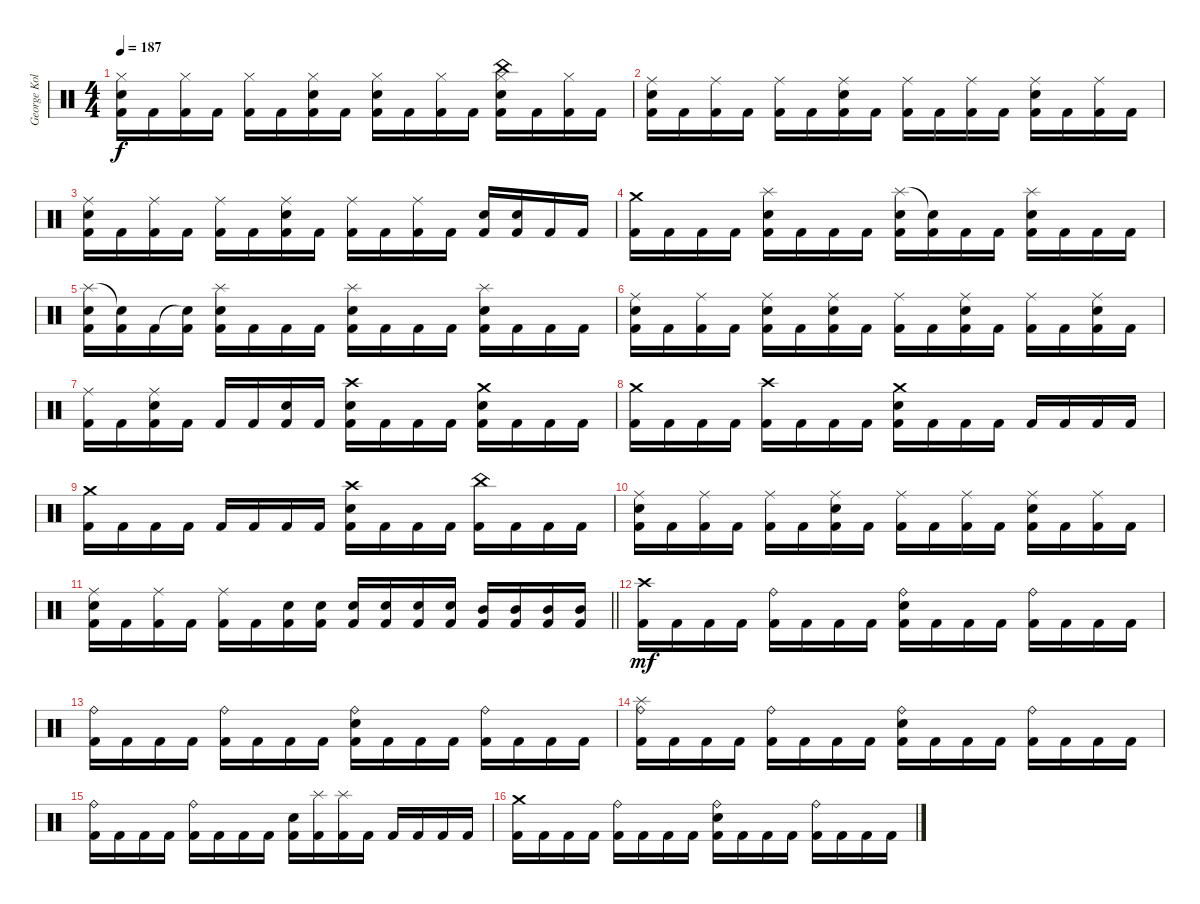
\track ("George Kollias" "George Kol") {instrument percussion}
\staff {score}
\articulation defaults
\ts (4 4)
\tempo 187
\clef neutral
\ks c
("Hi-Hat (closed)" "Electric Snare (hit)" "Kick (hit) 2").16{dy f} "Kick (hit) 2".16 ("Hi-Hat (closed)" "Kick (hit) 2").16 "Kick (hit) 2".16 ("Hi-Hat (closed)" "Kick (hit) 2").16 "Kick (hit) 2".16 ("Hi-Hat (closed)" "Electric Snare (hit)" "Kick (hit) 2").16 "Kick (hit) 2".16 ("Hi-Hat (closed)" "Electric Snare (hit)" "Kick (hit) 2").16 "Kick (hit) 2".16 ("Hi-Hat (closed)" "Kick (hit) 2").16 "Kick (hit) 2".16 ("China (hit)" "Hi-Hat (closed)" "Electric Snare (hit)" "Kick (hit) 2").16 "Kick (hit) 2".16 ("Hi-Hat (closed)" "Kick (hit) 2").16 "Kick (hit) 2".16 |
("Ride (middle)" "Electric Snare (hit)" "Kick (hit) 2").16 "Kick (hit) 2".16 ("Ride (middle)" "Kick (hit) 2").16 "Kick (hit) 2".16 ("Ride (middle)" "Kick (hit) 2").16 "Kick (hit) 2".16 ("Ride (middle)" "Electric Snare (hit)" "Kick (hit) 2").16 "Kick (hit) 2".16 ("Ride (middle)" "Kick (hit) 2").16 "Kick (hit) 2".16 ("Ride (middle)" "Kick (hit) 2").16 "Kick (hit) 2".16 ("Ride (middle)" "Electric Snare (hit)" "Kick (hit) 2").16 "Kick (hit) 2".16 ("Ride (middle)" "Kick (hit) 2").16 "Kick (hit) 2".16 |
("Ride (middle)" "Electric Snare (hit)" "Kick (hit) 2").16 "Kick (hit) 2".16 ("Ride (middle)" "Kick (hit) 2").16 "Kick (hit) 2".16 ("Ride (middle)" "Kick (hit) 2").16 "Kick (hit) 2".16 ("Ride (middle)" "Electric Snare (hit)" "Kick (hit) 2").16 "Kick (hit) 2".16 ("Ride (middle)" "Kick (hit) 2").16 "Kick (hit) 2".16 ("Ride (middle)" "Kick (hit) 2").16 "Kick (hit) 2".16 ("Electric Snare (hit)" "Kick (hit) 2").16 ("Electric Snare (hit)" "Kick (hit) 2").16 "Kick (hit) 2".16 "Kick (hit) 2".16 |
("Crash medium (hit)" "Kick (hit) 2").16 "Kick (hit) 2".16 "Kick (hit) 2".16 "Kick (hit) 2".16 ("Splash (hit)" "Electric Snare (hit)" "Kick (hit) 2").16 "Kick (hit) 2".16 "Kick (hit) 2".16 "Kick (hit) 2".16 ("Splash (hit)" "Electric Snare (hit)" "Kick (hit) 2").16 ("Snare (hit)"{t} "Kick (hit) 2").16 "Kick (hit) 2".16 "Kick (hit) 2".16 ("Splash (hit)" "Electric Snare (hit)" "Kick (hit) 2").16 "Kick (hit) 2".16 "Kick (hit) 2".16 "Kick (hit) 2".16 |
("Splash (hit)" "Electric Snare (hit)" "Kick (hit) 2").16 ("Snare (hit)"{t} "Kick (hit) 2").16 "Kick (hit) 2".16 ("Snare (hit)"{t} "Kick (hit) 2").16 ("Splash (hit)" "Electric Snare (hit)" "Kick (hit) 2").16 "Kick (hit) 2".16 "Kick (hit) 2".16 "Kick (hit) 2".16 ("Splash (hit)" "Electric Snare (hit)" "Kick (hit) 2").16 "Kick (hit) 2".16 "Kick (hit) 2".16 "Kick (hit) 2".16 ("Splash (hit)" "Electric Snare (hit)" "Kick (hit) 2").16 "Kick (hit) 2".16 "Kick (hit) 2".16 "Kick (hit) 2".16 |
("Ride (middle)" "Electric Snare (hit)" "Kick (hit) 2").16 "Kick (hit) 2".16 ("Ride (middle)" "Kick (hit) 2").16 "Kick (hit) 2".16 ("Ride (middle)" "Electric Snare (hit)" "Kick (hit) 2").16 "Kick (hit) 2".16 ("Ride (middle)" "Electric Snare (hit)" "Kick (hit) 2").16 "Kick (hit) 2".16 ("Ride (middle)" "Kick (hit) 2").16 "Kick (hit) 2".16 ("Ride (middle)" "Electric Snare (hit)" "Kick (hit) 2").16 "Kick (hit) 2".16 ("Ride (middle)" "Kick (hit) 2").16 "Kick (hit) 2".16 ("Ride (middle)" "Electric Snare (hit)" "Kick (hit) 2").16 "Kick (hit) 2".16 |
("Ride (middle)" "Kick (hit) 2").16 "Kick (hit) 2".16 ("Ride (middle)" "Electric Snare (hit)" "Kick (hit) 2").16 "Kick (hit) 2".16 "Kick (hit) 2".16 "Kick (hit) 2".16 ("Electric Snare (hit)" "Kick (hit) 2").16 "Kick (hit) 2".16 ("Crash high (hit)" "Electric Snare (hit)" "Kick (hit) 2").16 "Kick (hit) 2".16 "Kick (hit) 2".16 "Kick (hit) 2".16 ("Crash medium (hit)" "Electric Snare (hit)" "Kick (hit) 2").16 "Kick (hit) 2".16 "Kick (hit) 2".16 "Kick (hit) 2".16 |
("Crash medium (hit)" "Kick (hit) 2").16 "Kick (hit) 2".16 "Kick (hit) 2".16 "Kick (hit) 2".16 ("Crash high (hit)" "Kick (hit) 2").16 "Kick (hit) 2".16 "Kick (hit) 2".16 "Kick (hit) 2".16 ("Crash medium (hit)" "Electric Snare (hit)" "Kick (hit) 2").16 "Kick (hit) 2".16 "Kick (hit) 2".16 "Kick (hit) 2".16 "Kick (hit) 2".16 "Kick (hit) 2".16 "Kick (hit) 2".16 "Kick (hit) 2".16 |
("Crash medium (hit)" "Kick (hit) 2").16 "Kick (hit) 2".16 "Kick (hit) 2".16 "Kick (hit) 2".16 "Kick (hit) 2".16 "Kick (hit) 2".16 "Kick (hit) 2".16 "Kick (hit) 2".16 ("Crash high (hit)" "Electric Snare (hit)" "Kick (hit) 2").16 "Kick (hit) 2".16 "Kick (hit) 2".16 "Kick (hit) 2".16 ("China (hit)" "Kick (hit) 2").16 "Kick (hit) 2".16 "Kick (hit) 2".16 "Kick (hit) 2".16 |
("Ride (middle)" "Electric Snare (hit)" "Kick (hit) 2").16 "Kick (hit) 2".16 ("Ride (middle)" "Kick (hit) 2").16 "Kick (hit) 2".16 ("Ride (middle)" "Kick (hit) 2").16 "Kick (hit) 2".16 ("Ride (middle)" "Electric Snare (hit)" "Kick (hit) 2").16 "Kick (hit) 2".16 ("Ride (middle)" "Kick (hit) 2").16 "Kick (hit) 2".16 ("Ride (middle)" "Kick (hit) 2").16 "Kick (hit) 2".16 ("Ride (middle)" "Electric Snare (hit)" "Kick (hit) 2").16 "Kick (hit) 2".16 ("Ride (middle)" "Kick (hit) 2").16 "Kick (hit) 2".16 |
\barLineRight lightlight
("Ride (middle)" "Electric Snare (hit)" "Kick (hit) 2").16 "Kick (hit) 2".16 ("Ride (middle)" "Kick (hit) 2").16 "Kick (hit) 2".16 ("Ride (middle)" "Kick (hit) 2").16 "Kick (hit) 2".16 ("Electric Snare (hit)" "Kick (hit) 2").16 ("Electric Snare (hit)" "Kick (hit) 2").16 ("Electric Snare (hit)" "Kick (hit) 2").16 ("Electric Snare (hit)" "Kick (hit) 2").16 ("Electric Snare (hit)" "Kick (hit) 2").16 ("Electric Snare (hit)" "Kick (hit) 2").16 ("Mid Tom (hit)" "Kick (hit) 2").16 ("Mid Tom (hit)" "Kick (hit) 2").16 ("Mid Tom (hit)" "Kick (hit) 2").16 ("Mid Tom (hit)" "Kick (hit) 2").16 |
\section ("" "")
("Crash high (hit)" "Kick (hit) 2").16{dy mf} "Kick (hit) 2".16 "Kick (hit) 2".16 "Kick (hit) 2".16 ("Ride (bell)" "Kick (hit) 2").16 "Kick (hit) 2".16 "Kick (hit) 2".16 "Kick (hit) 2".16 ("Ride (bell)" "Electric Snare (hit)" "Kick (hit) 2").16 "Kick (hit) 2".16 "Kick (hit) 2".16 "Kick (hit) 2".16 ("Ride (bell)" "Kick (hit) 2").16 "Kick (hit) 2".16 "Kick (hit) 2".16 "Kick (hit) 2".16 |
("Ride (bell)" "Kick (hit) 2").16 "Kick (hit) 2".16 "Kick (hit) 2".16 "Kick (hit) 2".16 ("Ride (bell)" "Kick (hit) 2").16 "Kick (hit) 2".16 "Kick (hit) 2".16 "Kick (hit) 2".16 ("Ride (bell)" "Electric Snare (hit)" "Kick (hit) 2").16 "Kick (hit) 2".16 "Kick (hit) 2".16 "Kick (hit) 2".16 ("Ride (bell)" "Kick (hit) 2").16 "Kick (hit) 2".16 "Kick (hit) 2".16 "Kick (hit) 2".16 |
("Splash (hit)" "Ride (bell)" "Kick (hit) 2").16 "Kick (hit) 2".16 "Kick (hit) 2".16 "Kick (hit) 2".16 ("Ride (bell)" "Kick (hit) 2").16 "Kick (hit) 2".16 "Kick (hit) 2".16 "Kick (hit) 2".16 ("Ride (bell)" "Electric Snare (hit)" "Kick (hit) 2").16 "Kick (hit) 2".16 "Kick (hit) 2".16 "Kick (hit) 2".16 ("Ride (bell)" "Kick (hit) 2").16 "Kick (hit) 2".16 "Kick (hit) 2".16 "Kick (hit) 2".16 |
("Ride (bell)" "Kick (hit) 2").16 "Kick (hit) 2".16 "Kick (hit) 2".16 "Kick (hit) 2".16 ("Ride (bell)" "Kick (hit) 2").16 "Kick (hit) 2".16 "Kick (hit) 2".16 "Kick (hit) 2".16 ("Electric Snare (hit)" "Kick (hit) 2").16 ("Splash (hit)" "Kick (hit) 2").16 ("Splash (hit)" "Kick (hit) 2").16 "Kick (hit) 2".16 "Kick (hit) 2".16 "Kick (hit) 2".16 "Kick (hit) 2".16 "Kick (hit) 2".16 |
("Crash medium (hit)" "Kick (hit) 2").16 "Kick (hit) 2".16 "Kick (hit) 2".16 "Kick (hit) 2".16 ("Ride (bell)" "Kick (hit) 2").16 "Kick (hit) 2".16 "Kick (hit) 2".16 "Kick (hit) 2".16 ("Ride (bell)" "Electric Snare (hit)" "Kick (hit) 2").16 "Kick (hit) 2".16 "Kick (hit) 2".16 "Kick (hit) 2".16 ("Ride (bell)" "Kick (hit) 2").16 "Kick (hit) 2".16 "Kick (hit) 2".16 "Kick (hit) 2".16
